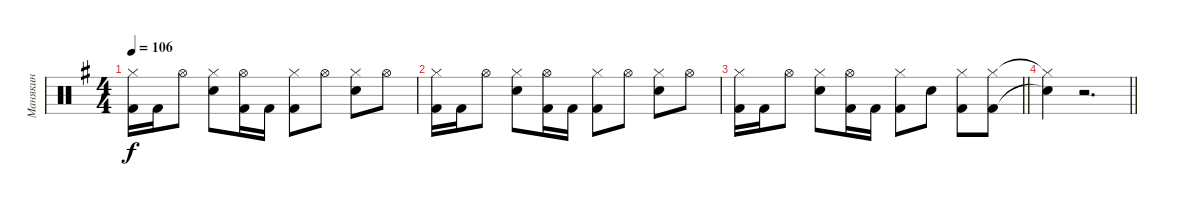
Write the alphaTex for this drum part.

\track ("Манякин" "Манякин") {instrument percussion}
\staff {score}
\articulation defaults
\ts (4 4)
\tempo 106
\clef neutral
\ks g
("Hi-Hat (closed)" "Kick (hit) 2").16{dy f} "Kick (hit) 2".16 "Hi-Hat (open)".8 ("Hi-Hat (closed)" "Electric Snare (hit)").8 ("Kick (hit) 2" "Hi-Hat (open)").16 "Kick (hit) 2".16 ("Hi-Hat (closed)" "Kick (hit) 2").8 "Hi-Hat (open)".8 ("Hi-Hat (closed)" "Electric Snare (hit)").8 "Hi-Hat (open)".8 |
("Hi-Hat (closed)" "Kick (hit) 2").16 "Kick (hit) 2".16 "Hi-Hat (open)".8 ("Hi-Hat (closed)" "Electric Snare (hit)").8 ("Kick (hit) 2" "Hi-Hat (open)").16 "Kick (hit) 2".16 ("Hi-Hat (closed)" "Kick (hit) 2").8 "Hi-Hat (open)".8 ("Hi-Hat (closed)" "Electric Snare (hit)").8 "Hi-Hat (open)".8 |
\barLineRight lightlight
("Hi-Hat (closed)" "Kick (hit) 2").16 "Kick (hit) 2".16 "Hi-Hat (open)".8 ("Hi-Hat (closed)" "Electric Snare (hit)").8 ("Kick (hit) 2" "Hi-Hat (open)").16 "Kick (hit) 2".16 ("Hi-Hat (closed)" "Kick (hit) 2").8 "Electric Snare (hit)".8 ("Hi-Hat (closed)" "Kick (hit) 2").8 ("Hi-Hat (closed)" "Kick (hit) 2").8 |
\barLineRight lightlight
("Hi-Hat (closed)"{t} "Electric Snare (hit)"{t}).4 r.2{d}
